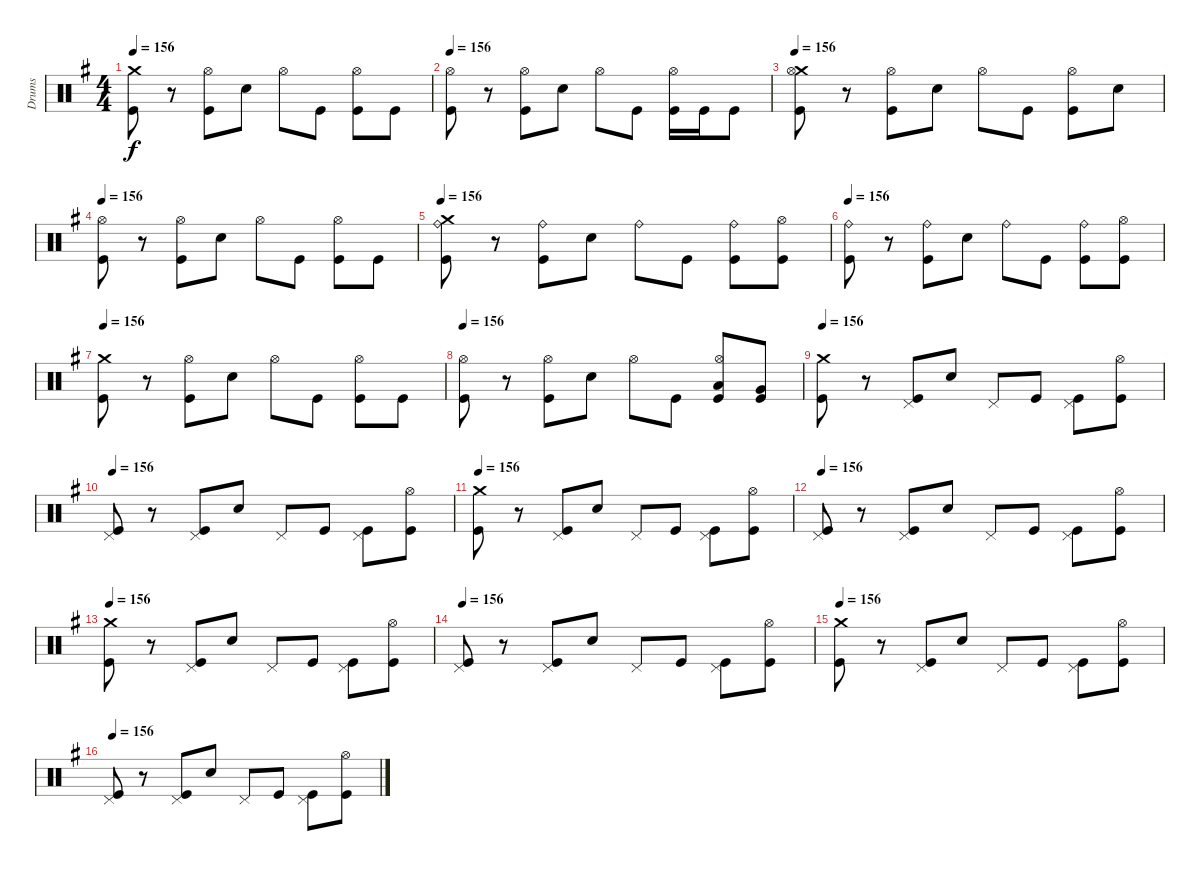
\track ("Drums" "Drums") {instrument percussion}
\staff {score}
\articulation defaults
\ts (4 4)
\tempo 156
\clef neutral
\ks g
("Crash medium (hit)" "Kick (hit)").8{dy f} r.8 ("Hi-Hat (open)" "Kick (hit)").8 "Electric Snare (hit)".8 "Hi-Hat (open)".8 "Kick (hit)".8 ("Hi-Hat (open)" "Kick (hit)").8 "Kick (hit)".8 |
\tempo 156
("Hi-Hat (open)" "Kick (hit)").8 r.8 ("Hi-Hat (open)" "Kick (hit)").8 "Electric Snare (hit)".8 "Hi-Hat (open)".8 "Kick (hit)".8 ("Hi-Hat (open)" "Kick (hit)").16 "Kick (hit)".16 "Kick (hit)".8 |
\tempo 156
("Crash medium (hit)" "Hi-Hat (open)" "Kick (hit)").8 r.8 ("Hi-Hat (open)" "Kick (hit)").8 "Electric Snare (hit)".8 "Hi-Hat (open)".8 "Kick (hit)".8 ("Hi-Hat (open)" "Kick (hit)").8 "Electric Snare (hit)".8 |
\tempo 156
("Hi-Hat (open)" "Kick (hit)").8 r.8 ("Hi-Hat (open)" "Kick (hit)").8 "Electric Snare (hit)".8 "Hi-Hat (open)".8 "Kick (hit)".8 ("Hi-Hat (open)" "Kick (hit)").8 "Kick (hit)".8 |
\tempo 156
("Crash medium (hit)" "Ride (bell)" "Kick (hit)").8 r.8 ("Ride (bell)" "Kick (hit)").8 "Electric Snare (hit)".8 "Ride (bell)".8 "Kick (hit)".8 ("Ride (bell)" "Kick (hit)").8 ("Hi-Hat (open)" "Kick (hit)").8 |
\tempo 156
("Ride (bell)" "Kick (hit)").8 r.8 ("Ride (bell)" "Kick (hit)").8 "Electric Snare (hit)".8 "Ride (bell)".8 "Kick (hit)".8 ("Ride (bell)" "Kick (hit)").8 ("Hi-Hat (open)" "Kick (hit)").8 |
\tempo 156
("Crash medium (hit)" "Kick (hit)").8 r.8 ("Hi-Hat (open)" "Kick (hit)").8 "Electric Snare (hit)".8 "Hi-Hat (open)".8 "Kick (hit)".8 ("Hi-Hat (open)" "Kick (hit)").8 "Kick (hit)".8 |
\tempo 156
("Hi-Hat (open)" "Kick (hit)").8 r.8 ("Hi-Hat (open)" "Kick (hit)").8 "Electric Snare (hit)".8 "Hi-Hat (open)".8 "Kick (hit)".8 ("Hi-Hat (open)" "Low Tom (hit)" "Kick (hit)").8 ("Very Low Tom (hit)" "Kick (hit)").8 |
\tempo 156
("Crash medium (hit)" "Kick (hit)").8 r.8 ("Pedal Hi-Hat (hit)" "Kick (hit)").8 "Electric Snare (hit)".8 "Pedal Hi-Hat (hit)".8 "Kick (hit)".8 ("Pedal Hi-Hat (hit)" "Kick (hit)").8 ("Hi-Hat (open)" "Kick (hit)").8 |
\tempo 156
("Pedal Hi-Hat (hit)" "Kick (hit)").8 r.8 ("Pedal Hi-Hat (hit)" "Kick (hit)").8 "Electric Snare (hit)".8 "Pedal Hi-Hat (hit)".8 "Kick (hit)".8 ("Pedal Hi-Hat (hit)" "Kick (hit)").8 ("Hi-Hat (open)" "Kick (hit)").8 |
\tempo 156
("Crash medium (hit)" "Kick (hit)").8 r.8 ("Pedal Hi-Hat (hit)" "Kick (hit)").8 "Electric Snare (hit)".8 "Pedal Hi-Hat (hit)".8 "Kick (hit)".8 ("Pedal Hi-Hat (hit)" "Kick (hit)").8 ("Hi-Hat (open)" "Kick (hit)").8 |
\tempo 156
("Pedal Hi-Hat (hit)" "Kick (hit)").8 r.8 ("Pedal Hi-Hat (hit)" "Kick (hit)").8 "Electric Snare (hit)".8 "Pedal Hi-Hat (hit)".8 "Kick (hit)".8 ("Pedal Hi-Hat (hit)" "Kick (hit)").8 ("Hi-Hat (open)" "Kick (hit)").8 |
\tempo 156
("Crash medium (hit)" "Kick (hit)").8 r.8 ("Pedal Hi-Hat (hit)" "Kick (hit)").8 "Electric Snare (hit)".8 "Pedal Hi-Hat (hit)".8 "Kick (hit)".8 ("Pedal Hi-Hat (hit)" "Kick (hit)").8 ("Hi-Hat (open)" "Kick (hit)").8 |
\tempo 156
("Pedal Hi-Hat (hit)" "Kick (hit)").8 r.8 ("Pedal Hi-Hat (hit)" "Kick (hit)").8 "Electric Snare (hit)".8 "Pedal Hi-Hat (hit)".8 "Kick (hit)".8 ("Pedal Hi-Hat (hit)" "Kick (hit)").8 ("Hi-Hat (open)" "Kick (hit)").8 |
\tempo 156
("Crash medium (hit)" "Kick (hit)").8 r.8 ("Pedal Hi-Hat (hit)" "Kick (hit)").8 "Electric Snare (hit)".8 "Pedal Hi-Hat (hit)".8 "Kick (hit)".8 ("Pedal Hi-Hat (hit)" "Kick (hit)").8 ("Hi-Hat (open)" "Kick (hit)").8 |
\tempo 156
("Pedal Hi-Hat (hit)" "Kick (hit)").8 r.8 ("Pedal Hi-Hat (hit)" "Kick (hit)").8 "Electric Snare (hit)".8 "Pedal Hi-Hat (hit)".8 "Kick (hit)".8 ("Pedal Hi-Hat (hit)" "Kick (hit)").8 ("Hi-Hat (open)" "Kick (hit)").8
